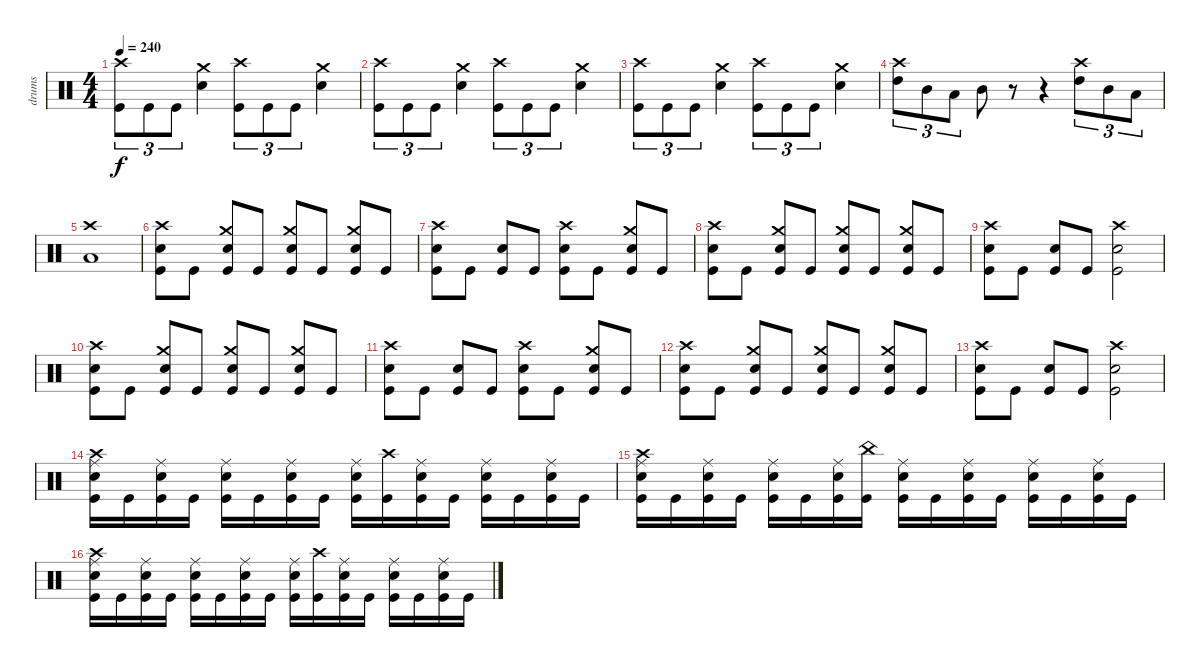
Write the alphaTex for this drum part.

\track ("drums" "drums") {instrument percussion}
\staff {score}
\articulation defaults
\ts (4 4)
\tempo 240
\clef neutral
\ks c
("Crash high (hit)" "Kick (hit)").8{tu (3 2) dy f} "Kick (hit)".8{tu (3 2)} "Kick (hit)".8{tu (3 2)} ("Crash medium (hit)" "Electric Snare (hit)").4 ("Crash high (hit)" "Kick (hit)").8{tu (3 2)} "Kick (hit)".8{tu (3 2)} "Kick (hit)".8{tu (3 2)} ("Crash medium (hit)" "Electric Snare (hit)").4 |
("Crash high (hit)" "Kick (hit)").8{tu (3 2)} "Kick (hit)".8{tu (3 2)} "Kick (hit)".8{tu (3 2)} ("Crash medium (hit)" "Electric Snare (hit)").4 ("Crash high (hit)" "Kick (hit)").8{tu (3 2)} "Kick (hit)".8{tu (3 2)} "Kick (hit)".8{tu (3 2)} ("Crash medium (hit)" "Electric Snare (hit)").4 |
("Crash high (hit)" "Kick (hit)").8{tu (3 2)} "Kick (hit)".8{tu (3 2)} "Kick (hit)".8{tu (3 2)} ("Crash medium (hit)" "Electric Snare (hit)").4 ("Crash high (hit)" "Kick (hit)").8{tu (3 2)} "Kick (hit)".8{tu (3 2)} "Kick (hit)".8{tu (3 2)} ("Crash medium (hit)" "Electric Snare (hit)").4 |
("Crash high (hit)" "High Tom (hit)").8{tu (3 2)} "Mid Tom (hit)".8{tu (3 2)} "Low Tom (hit)".8{tu (3 2)} "Mid Tom (hit)".8 r.8 r.4 ("Crash high (hit)" "High Tom (hit)").8{tu (3 2)} "Mid Tom (hit)".8{tu (3 2)} "Low Tom (hit)".8{tu (3 2)} |
("Crash high (hit)" "Low Tom (hit)").1 |
("Crash high (hit)" "Electric Snare (hit)" "Kick (hit)").8 "Kick (hit)".8 ("Crash medium (hit)" "Electric Snare (hit)" "Kick (hit)").8 "Kick (hit)".8 ("Crash medium (hit)" "Electric Snare (hit)" "Kick (hit)").8 "Kick (hit)".8 ("Crash medium (hit)" "Electric Snare (hit)" "Kick (hit)").8 "Kick (hit)".8 |
("Crash high (hit)" "Electric Snare (hit)" "Kick (hit)").8 "Kick (hit)".8 ("Electric Snare (hit)" "Kick (hit)").8 "Kick (hit)".8 ("Crash high (hit)" "Electric Snare (hit)" "Kick (hit)").8 "Kick (hit)".8 ("Crash medium (hit)" "Electric Snare (hit)" "Kick (hit)").8 "Kick (hit)".8 |
("Crash high (hit)" "Electric Snare (hit)" "Kick (hit)").8 "Kick (hit)".8 ("Crash medium (hit)" "Electric Snare (hit)" "Kick (hit)").8 "Kick (hit)".8 ("Crash medium (hit)" "Electric Snare (hit)" "Kick (hit)").8 "Kick (hit)".8 ("Crash medium (hit)" "Electric Snare (hit)" "Kick (hit)").8 "Kick (hit)".8 |
("Crash high (hit)" "Electric Snare (hit)" "Kick (hit)").8 "Kick (hit)".8 ("Electric Snare (hit)" "Kick (hit)").8 "Kick (hit)".8 ("Crash high (hit)" "Electric Snare (hit)" "Kick (hit)").2 |
("Crash high (hit)" "Electric Snare (hit)" "Kick (hit)").8 "Kick (hit)".8 ("Crash medium (hit)" "Electric Snare (hit)" "Kick (hit)").8 "Kick (hit)".8 ("Crash medium (hit)" "Electric Snare (hit)" "Kick (hit)").8 "Kick (hit)".8 ("Crash medium (hit)" "Electric Snare (hit)" "Kick (hit)").8 "Kick (hit)".8 |
("Crash high (hit)" "Electric Snare (hit)" "Kick (hit)").8 "Kick (hit)".8 ("Electric Snare (hit)" "Kick (hit)").8 "Kick (hit)".8 ("Crash high (hit)" "Electric Snare (hit)" "Kick (hit)").8 "Kick (hit)".8 ("Crash medium (hit)" "Electric Snare (hit)" "Kick (hit)").8 "Kick (hit)".8 |
("Crash high (hit)" "Electric Snare (hit)" "Kick (hit)").8 "Kick (hit)".8 ("Crash medium (hit)" "Electric Snare (hit)" "Kick (hit)").8 "Kick (hit)".8 ("Crash medium (hit)" "Electric Snare (hit)" "Kick (hit)").8 "Kick (hit)".8 ("Crash medium (hit)" "Electric Snare (hit)" "Kick (hit)").8 "Kick (hit)".8 |
("Crash high (hit)" "Electric Snare (hit)" "Kick (hit)").8 "Kick (hit)".8 ("Electric Snare (hit)" "Kick (hit)").8 "Kick (hit)".8 ("Crash high (hit)" "Electric Snare (hit)" "Kick (hit)").2 |
("Crash high (hit)" "Ride (middle)" "Electric Snare (hit)" "Kick (hit)").16 "Kick (hit)".16 ("Ride (middle)" "Electric Snare (hit)" "Kick (hit)").16 "Kick (hit)".16 ("Ride (middle)" "Electric Snare (hit)" "Kick (hit)").16 "Kick (hit)".16 ("Ride (middle)" "Electric Snare (hit)" "Kick (hit)").16 "Kick (hit)".16 ("Ride (middle)" "Electric Snare (hit)" "Kick (hit)").16 ("Crash high (hit)" "Kick (hit)").16 ("Ride (middle)" "Electric Snare (hit)" "Kick (hit)").16 "Kick (hit)".16 ("Ride (middle)" "Electric Snare (hit)" "Kick (hit)").16 "Kick (hit)".16 ("Ride (middle)" "Electric Snare (hit)" "Kick (hit)").16 "Kick (hit)".16 |
("Crash high (hit)" "Ride (middle)" "Electric Snare (hit)" "Kick (hit)").16 "Kick (hit)".16 ("Ride (middle)" "Electric Snare (hit)" "Kick (hit)").16 "Kick (hit)".16 ("Ride (middle)" "Electric Snare (hit)" "Kick (hit)").16 "Kick (hit)".16 ("Ride (middle)" "Electric Snare (hit)" "Kick (hit)").16 ("China (hit)" "Kick (hit)").16 ("Ride (middle)" "Electric Snare (hit)" "Kick (hit)").16 "Kick (hit)".16 ("Ride (middle)" "Electric Snare (hit)" "Kick (hit)").16 "Kick (hit)".16 ("Ride (middle)" "Electric Snare (hit)" "Kick (hit)").16 "Kick (hit)".16 ("Ride (middle)" "Electric Snare (hit)" "Kick (hit)").16 "Kick (hit)".16 |
("Crash high (hit)" "Ride (middle)" "Electric Snare (hit)" "Kick (hit)").16 "Kick (hit)".16 ("Ride (middle)" "Electric Snare (hit)" "Kick (hit)").16 "Kick (hit)".16 ("Ride (middle)" "Electric Snare (hit)" "Kick (hit)").16 "Kick (hit)".16 ("Ride (middle)" "Electric Snare (hit)" "Kick (hit)").16 "Kick (hit)".16 ("Ride (middle)" "Electric Snare (hit)" "Kick (hit)").16 ("Crash high (hit)" "Kick (hit)").16 ("Ride (middle)" "Electric Snare (hit)" "Kick (hit)").16 "Kick (hit)".16 ("Ride (middle)" "Electric Snare (hit)" "Kick (hit)").16 "Kick (hit)".16 ("Ride (middle)" "Electric Snare (hit)" "Kick (hit)").16 "Kick (hit)".16
